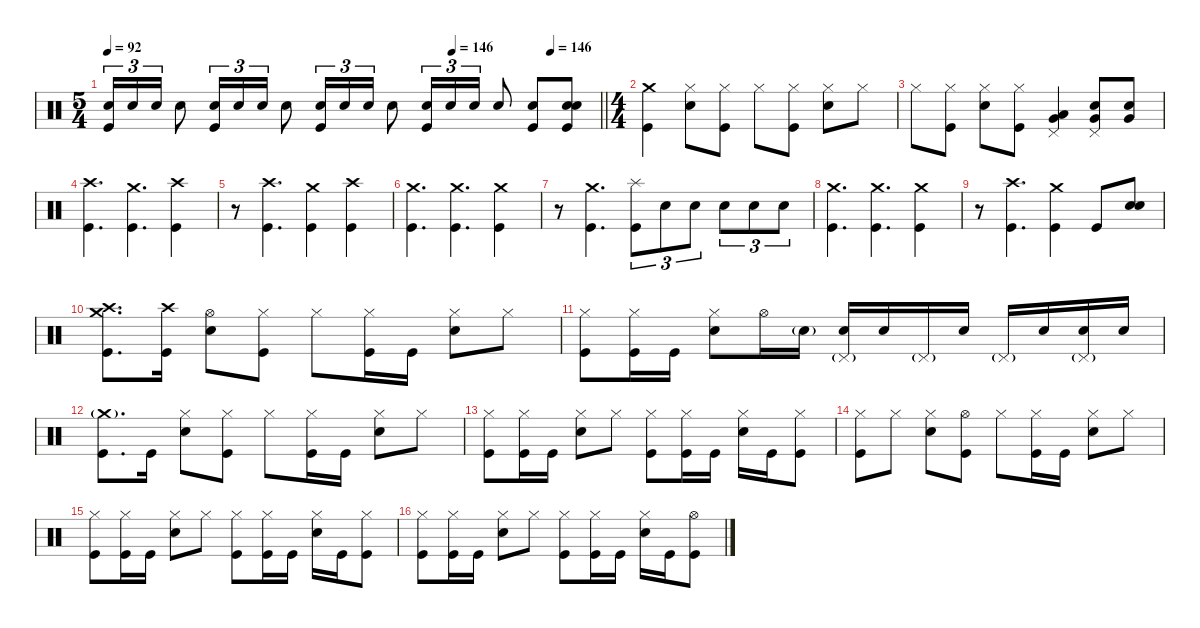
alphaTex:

\defaultSystemsLayout 4
\hideDynamics
\bracketExtendMode nobrackets
\singleTrackTrackNamePolicy hidden
\multiTrackTrackNamePolicy hidden
\firstSystemTrackNameMode fullname
\firstSystemTrackNameOrientation horizontal
\otherSystemsTrackNameOrientation horizontal
\track ("Drums" "drm.") {instrument percussion}
\staff {score}
\articulation defaults
\ts (5 4)
\tempo 92
\tempo (146 0.7)
\tempo (146 0.9)
\clef neutral
\barLineRight lightlight
\ks c
("Snare (hit) 2" "Kick (hit)").16{tu (3 2) dy f beam Up} "Snare (hit) 2".16{tu (3 2) beam Up} "Snare (hit) 2".16{tu (3 2) beam Up} "Snare (hit) 2".8{beam Down} ("Snare (hit) 2" "Kick (hit)").16{tu (3 2) beam Up} "Snare (hit) 2".16{tu (3 2) beam Up} "Snare (hit) 2".16{tu (3 2) beam Up} "Snare (hit) 2".8{beam Down} ("Snare (hit) 2" "Kick (hit)").16{tu (3 2) beam Up} "Snare (hit) 2".16{tu (3 2) beam Up} "Snare (hit) 2".16{tu (3 2) beam Up} "Snare (hit) 2".8{beam Down} ("Snare (hit) 2" "Kick (hit)").16{tu (3 2) beam Up} "Snare (hit) 2".16{tu (3 2) beam Up} "Snare (hit) 2".16{tu (3 2) beam Up} "Snare (hit) 2".8{beam Up} ("Snare (hit) 2" "Kick (hit)").8{beam Up} ("Snare (hit) 2" "Snare (hit) 2" "Kick (hit)").8{beam Up} |
\ts (4 4)
\beaming (8 2 2 2 2)
("Crash medium (hit)" "Kick (hit)").4{beam Down} ("Hi-Hat (closed)" "Snare (hit) 2").8{beam Down} ("Hi-Hat (closed)" "Kick (hit)").8{beam Down} "Hi-Hat (closed)".8{beam Down} ("Hi-Hat (closed)" "Kick (hit)").8{beam Down} ("Hi-Hat (closed)" "Snare (hit) 2").8{beam Down} "Hi-Hat (closed)".8{beam Down} |
"Hi-Hat (closed)".8{beam Down} ("Hi-Hat (closed)" "Kick (hit)").8{beam Down} ("Hi-Hat (closed)" "Snare (hit) 2").8{beam Down} ("Hi-Hat (closed)" "Kick (hit)").8{beam Down} ("Pedal Hi-Hat (hit)" "Low Tom (hit)" "Very Low Tom (hit)").4{beam Up} ("Pedal Hi-Hat (hit)" "Snare (hit) 2" "Very Low Tom (hit)").8{beam Up} ("Snare (hit) 2" "Very Low Tom (hit)").8{beam Up} |
("Crash high (hit)" "Kick (hit)").4{d beam Down} ("Crash medium (hit)" "Kick (hit)").4{d beam Down} ("Crash high (hit)" "Kick (hit)").4{beam Down} |
r.8{beam Down} ("Crash high (hit)" "Kick (hit)").4{d beam Down} ("Crash medium (hit)" "Kick (hit)").4{beam Down} ("Crash high (hit)" "Kick (hit)").4{beam Down} |
("Crash medium (hit)" "Kick (hit)").4{d beam Down} ("Crash medium (hit)" "Kick (hit)").4{d beam Down} ("Crash medium (hit)" "Kick (hit)").4{beam Down} |
r.8{beam Down} ("Crash medium (hit)" "Kick (hit)").4{d beam Down} ("Splash (hit)" "Kick (hit)").8{tu (3 2) beam Down} "Snare (hit) 2".8{tu (3 2) beam Down} "Snare (hit) 2".8{tu (3 2) beam Down} "Snare (hit) 2".8{tu (3 2) beam Down} "Snare (hit) 2".8{tu (3 2) beam Down} "Snare (hit) 2".8{tu (3 2) beam Down} |
("Crash medium (hit)" "Kick (hit)").4{d beam Down} ("Crash medium (hit)" "Kick (hit)").4{d beam Down} ("Crash medium (hit)" "Kick (hit)").4{beam Down} |
r.8{beam Down} ("Crash high (hit)" "Kick (hit)").4{d beam Down} ("Crash medium (hit)" "Kick (hit)").4{beam Down} "Kick (hit)".8{beam Up} ("Snare (hit) 2" "Snare (hit) 2").8{beam Up} |
("Crash medium (hit)" "Crash high (hit)" "Kick (hit)").8{d beam Down} ("Crash high (hit)" "Kick (hit)").16{beam Down} ("Hi-Hat (open)" "Snare (hit) 2").8{beam Down} ("Hi-Hat (closed)" "Kick (hit)").8{beam Down} "Hi-Hat (closed)".8{beam Down} ("Hi-Hat (closed)" "Kick (hit)").16{beam Down} "Kick (hit)".16{beam Down} ("Hi-Hat (closed)" "Snare (hit) 2").8{beam Down} "Hi-Hat (closed)".8{beam Down} |
("Hi-Hat (closed)" "Kick (hit)").8{beam Down} ("Hi-Hat (closed)" "Kick (hit)").16{beam Down} "Kick (hit)".16{beam Down} ("Hi-Hat (closed)" "Snare (hit) 2").8{beam Down} "Hi-Hat (open)".16{beam Down} "Snare (hit) 2"{g}.16{dy mf beam Down} ("Pedal Hi-Hat (hit)"{g} "Snare (hit) 2").16{dy f beam Up} "Snare (hit) 2".16{beam Up} "Pedal Hi-Hat (hit)"{g}.16{dy mf beam Up} "Snare (hit) 2".16{dy f beam Up} "Pedal Hi-Hat (hit)"{g}.16{dy mf beam Up} "Snare (hit) 2".16{dy f beam Up} ("Pedal Hi-Hat (hit)"{g} "Snare (hit) 2").16{beam Up} "Snare (hit) 2".16{beam Up} |
("Crash medium (hit)"{g} "Kick (hit)").8{d beam Down} "Kick (hit)".16{beam Down} ("Hi-Hat (closed)" "Snare (hit) 2").8{beam Down} ("Hi-Hat (closed)" "Kick (hit)").8{beam Down} "Hi-Hat (closed)".8{beam Down} ("Hi-Hat (closed)" "Kick (hit)").16{beam Down} "Kick (hit)".16{beam Down} ("Hi-Hat (closed)" "Snare (hit) 2").8{beam Down} "Hi-Hat (closed)".8{beam Down} |
("Hi-Hat (closed)" "Kick (hit)").8{beam Down} ("Hi-Hat (closed)" "Kick (hit)").16{beam Down} "Kick (hit)".16{beam Down} ("Hi-Hat (closed)" "Snare (hit) 2").8{beam Down} "Hi-Hat (closed)".8{beam Down} ("Hi-Hat (closed)" "Kick (hit)").8{beam Down} ("Hi-Hat (closed)" "Kick (hit)").16{beam Down} "Kick (hit)".16{beam Down} ("Hi-Hat (closed)" "Snare (hit) 2").16{beam Down} "Kick (hit)".16{beam Down} ("Hi-Hat (closed)" "Kick (hit)").8{beam Down} |
("Hi-Hat (closed)" "Kick (hit)").8{beam Down} "Hi-Hat (closed)".8{beam Down} ("Hi-Hat (closed)" "Snare (hit) 2").8{beam Down} ("Hi-Hat (open)" "Kick (hit)").8{beam Down} "Hi-Hat (closed)".8{beam Down} ("Hi-Hat (closed)" "Kick (hit)").16{beam Down} "Kick (hit)".16{beam Down} ("Hi-Hat (closed)" "Snare (hit) 2").8{beam Down} "Hi-Hat (closed)".8{beam Down} |
("Hi-Hat (closed)" "Kick (hit)").8{beam Down} ("Hi-Hat (closed)" "Kick (hit)").16{beam Down} "Kick (hit)".16{beam Down} ("Hi-Hat (closed)" "Snare (hit) 2").8{beam Down} "Hi-Hat (closed)".8{beam Down} ("Hi-Hat (closed)" "Kick (hit)").8{beam Down} ("Hi-Hat (closed)" "Kick (hit)").16{beam Down} "Kick (hit)".16{beam Down} ("Hi-Hat (closed)" "Snare (hit) 2").16{beam Down} "Kick (hit)".16{beam Down} ("Hi-Hat (closed)" "Kick (hit)").8{beam Down} |
("Hi-Hat (closed)" "Kick (hit)").8{beam Down} ("Hi-Hat (closed)" "Kick (hit)").16{beam Down} "Kick (hit)".16{beam Down} ("Hi-Hat (closed)" "Snare (hit) 2").8{beam Down} "Hi-Hat (closed)".8{beam Down} ("Hi-Hat (closed)" "Kick (hit)").8{beam Down} ("Hi-Hat (closed)" "Kick (hit)").16{beam Down} "Kick (hit)".16{beam Down} ("Hi-Hat (closed)" "Snare (hit) 2").16{beam Down} "Kick (hit)".16{beam Down} ("Hi-Hat (open)" "Kick (hit)").8{beam Down}
